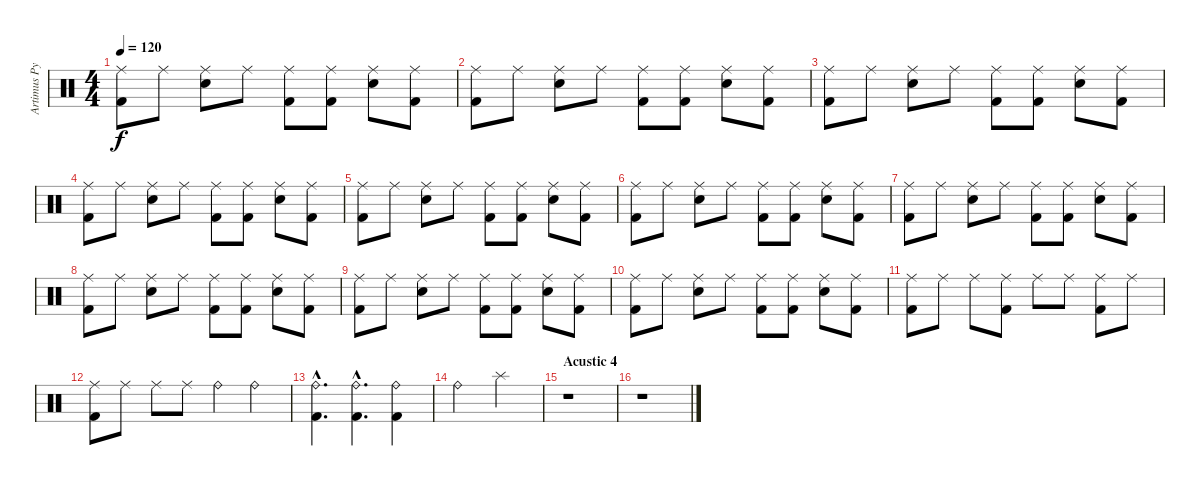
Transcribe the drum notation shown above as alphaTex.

\track ("Artimus Pyle" "Artimus Py") {instrument percussion}
\staff {score}
\articulation defaults
\ts (4 4)
\tempo 120
\clef neutral
\ks c
("Ride (middle)" "Kick (hit) 2").8{dy f} "Ride (middle)".8 ("Ride (middle)" "Snare (hit) 2").8 "Ride (middle)".8 ("Ride (middle)" "Kick (hit) 2").8 ("Ride (middle)" "Kick (hit) 2").8 ("Ride (middle)" "Snare (hit) 2").8 ("Ride (middle)" "Kick (hit) 2").8 |
("Ride (middle)" "Kick (hit) 2").8 "Ride (middle)".8 ("Ride (middle)" "Snare (hit) 2").8 "Ride (middle)".8 ("Ride (middle)" "Kick (hit) 2").8 ("Ride (middle)" "Kick (hit) 2").8 ("Ride (middle)" "Snare (hit) 2").8 ("Ride (middle)" "Kick (hit) 2").8 |
("Ride (middle)" "Kick (hit) 2").8 "Ride (middle)".8 ("Ride (middle)" "Snare (hit) 2").8 "Ride (middle)".8 ("Ride (middle)" "Kick (hit) 2").8 ("Ride (middle)" "Kick (hit) 2").8 ("Ride (middle)" "Snare (hit) 2").8 ("Ride (middle)" "Kick (hit) 2").8 |
("Ride (middle)" "Kick (hit) 2").8 "Ride (middle)".8 ("Ride (middle)" "Snare (hit) 2").8 "Ride (middle)".8 ("Ride (middle)" "Kick (hit) 2").8 ("Ride (middle)" "Kick (hit) 2").8 ("Ride (middle)" "Snare (hit) 2").8 ("Ride (middle)" "Kick (hit) 2").8 |
("Ride (middle)" "Kick (hit) 2").8 "Ride (middle)".8 ("Ride (middle)" "Snare (hit) 2").8 "Ride (middle)".8 ("Ride (middle)" "Kick (hit) 2").8 ("Ride (middle)" "Kick (hit) 2").8 ("Ride (middle)" "Snare (hit) 2").8 ("Ride (middle)" "Kick (hit) 2").8 |
("Ride (middle)" "Kick (hit) 2").8 "Ride (middle)".8 ("Ride (middle)" "Snare (hit) 2").8 "Ride (middle)".8 ("Ride (middle)" "Kick (hit) 2").8 ("Ride (middle)" "Kick (hit) 2").8 ("Ride (middle)" "Snare (hit) 2").8 ("Ride (middle)" "Kick (hit) 2").8 |
("Ride (middle)" "Kick (hit) 2").8 "Ride (middle)".8 ("Ride (middle)" "Snare (hit) 2").8 "Ride (middle)".8 ("Ride (middle)" "Kick (hit) 2").8 ("Ride (middle)" "Kick (hit) 2").8 ("Ride (middle)" "Snare (hit) 2").8 ("Ride (middle)" "Kick (hit) 2").8 |
("Ride (middle)" "Kick (hit) 2").8 "Ride (middle)".8 ("Ride (middle)" "Snare (hit) 2").8 "Ride (middle)".8 ("Ride (middle)" "Kick (hit) 2").8 ("Ride (middle)" "Kick (hit) 2").8 ("Ride (middle)" "Snare (hit) 2").8 ("Ride (middle)" "Kick (hit) 2").8 |
("Ride (middle)" "Kick (hit) 2").8 "Ride (middle)".8 ("Ride (middle)" "Snare (hit) 2").8 "Ride (middle)".8 ("Ride (middle)" "Kick (hit) 2").8 ("Ride (middle)" "Kick (hit) 2").8 ("Ride (middle)" "Snare (hit) 2").8 ("Ride (middle)" "Kick (hit) 2").8 |
("Ride (middle)" "Kick (hit) 2").8 "Ride (middle)".8 ("Ride (middle)" "Snare (hit) 2").8 "Ride (middle)".8 ("Ride (middle)" "Kick (hit) 2").8 ("Ride (middle)" "Kick (hit) 2").8 ("Ride (middle)" "Snare (hit) 2").8 ("Ride (middle)" "Kick (hit) 2").8 |
("Ride (middle)" "Kick (hit) 2").8 "Ride (middle)".8 "Ride (middle)".8 ("Ride (middle)" "Kick (hit) 2").8 "Ride (middle)".8 "Ride (middle)".8 ("Ride (middle)" "Kick (hit) 2").8 "Ride (middle)".8 |
("Ride (middle)" "Kick (hit) 2").8 "Ride (middle)".8 "Ride (middle)".8 "Ride (middle)".8 "Ride (bell)".4 "Ride (bell)".4 |
("Ride (bell)"{hac} "Kick (hit) 2"{hac}).4{d} ("Ride (bell)"{hac} "Kick (hit) 2"{hac}).4{d} ("Ride (bell)" "Kick (hit) 2").4 |
"Ride (bell)".2 "Splash (hit)".2 |
\section ("" "Acustic 4")
r.1 |
r.1
